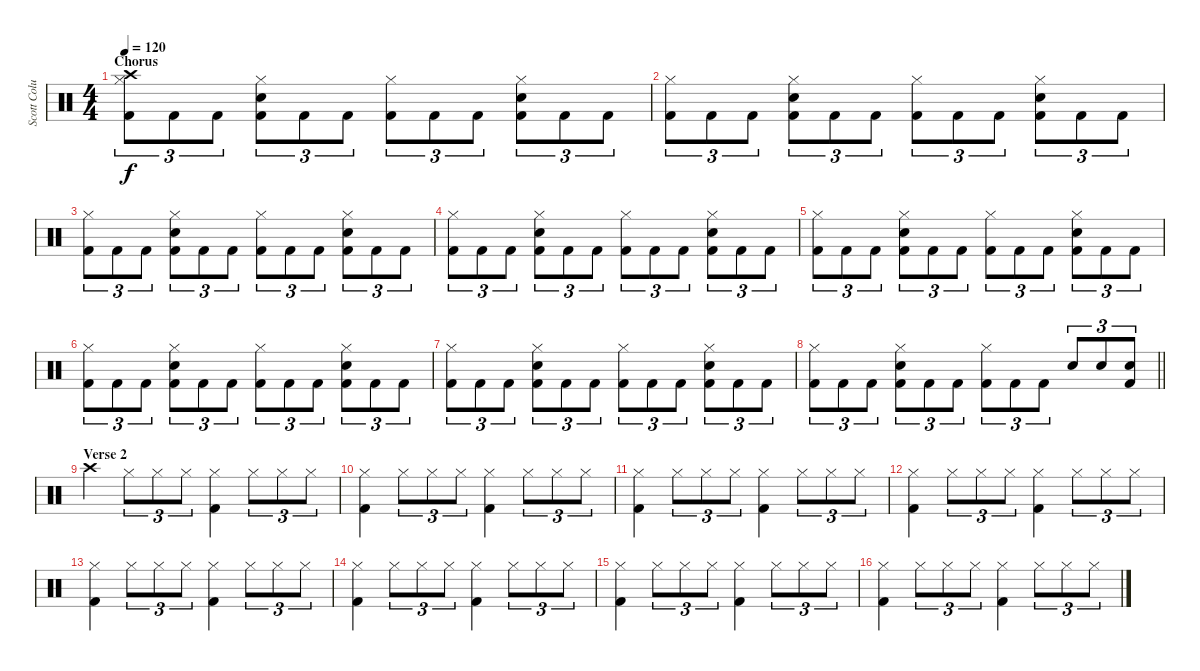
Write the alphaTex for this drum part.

\track ("Scott Columbus" "Scott Colu") {instrument percussion}
\staff {score}
\articulation defaults
\ts (4 4)
\section ("" "Chorus")
\tempo 120
\clef neutral
\ks c
("Crash high (hit)" "Hi-Hat (closed)" "Kick (hit) 2").8{tu (3 2) dy f} "Kick (hit) 2".8{tu (3 2)} "Kick (hit) 2".8{tu (3 2)} ("Hi-Hat (closed)" "Snare (hit) 2" "Kick (hit) 2").8{tu (3 2)} "Kick (hit) 2".8{tu (3 2)} "Kick (hit) 2".8{tu (3 2)} ("Hi-Hat (closed)" "Kick (hit) 2").8{tu (3 2)} "Kick (hit) 2".8{tu (3 2)} "Kick (hit) 2".8{tu (3 2)} ("Hi-Hat (closed)" "Snare (hit) 2" "Kick (hit) 2").8{tu (3 2)} "Kick (hit) 2".8{tu (3 2)} "Kick (hit) 2".8{tu (3 2)} |
("Hi-Hat (closed)" "Kick (hit) 2").8{tu (3 2)} "Kick (hit) 2".8{tu (3 2)} "Kick (hit) 2".8{tu (3 2)} ("Hi-Hat (closed)" "Snare (hit) 2" "Kick (hit) 2").8{tu (3 2)} "Kick (hit) 2".8{tu (3 2)} "Kick (hit) 2".8{tu (3 2)} ("Hi-Hat (closed)" "Kick (hit) 2").8{tu (3 2)} "Kick (hit) 2".8{tu (3 2)} "Kick (hit) 2".8{tu (3 2)} ("Hi-Hat (closed)" "Snare (hit) 2" "Kick (hit) 2").8{tu (3 2)} "Kick (hit) 2".8{tu (3 2)} "Kick (hit) 2".8{tu (3 2)} |
("Hi-Hat (closed)" "Kick (hit) 2").8{tu (3 2)} "Kick (hit) 2".8{tu (3 2)} "Kick (hit) 2".8{tu (3 2)} ("Hi-Hat (closed)" "Snare (hit) 2" "Kick (hit) 2").8{tu (3 2)} "Kick (hit) 2".8{tu (3 2)} "Kick (hit) 2".8{tu (3 2)} ("Hi-Hat (closed)" "Kick (hit) 2").8{tu (3 2)} "Kick (hit) 2".8{tu (3 2)} "Kick (hit) 2".8{tu (3 2)} ("Hi-Hat (closed)" "Snare (hit) 2" "Kick (hit) 2").8{tu (3 2)} "Kick (hit) 2".8{tu (3 2)} "Kick (hit) 2".8{tu (3 2)} |
("Hi-Hat (closed)" "Kick (hit) 2").8{tu (3 2)} "Kick (hit) 2".8{tu (3 2)} "Kick (hit) 2".8{tu (3 2)} ("Hi-Hat (closed)" "Snare (hit) 2" "Kick (hit) 2").8{tu (3 2)} "Kick (hit) 2".8{tu (3 2)} "Kick (hit) 2".8{tu (3 2)} ("Hi-Hat (closed)" "Kick (hit) 2").8{tu (3 2)} "Kick (hit) 2".8{tu (3 2)} "Kick (hit) 2".8{tu (3 2)} ("Hi-Hat (closed)" "Snare (hit) 2" "Kick (hit) 2").8{tu (3 2)} "Kick (hit) 2".8{tu (3 2)} "Kick (hit) 2".8{tu (3 2)} |
("Hi-Hat (closed)" "Kick (hit) 2").8{tu (3 2)} "Kick (hit) 2".8{tu (3 2)} "Kick (hit) 2".8{tu (3 2)} ("Hi-Hat (closed)" "Snare (hit) 2" "Kick (hit) 2").8{tu (3 2)} "Kick (hit) 2".8{tu (3 2)} "Kick (hit) 2".8{tu (3 2)} ("Hi-Hat (closed)" "Kick (hit) 2").8{tu (3 2)} "Kick (hit) 2".8{tu (3 2)} "Kick (hit) 2".8{tu (3 2)} ("Hi-Hat (closed)" "Snare (hit) 2" "Kick (hit) 2").8{tu (3 2)} "Kick (hit) 2".8{tu (3 2)} "Kick (hit) 2".8{tu (3 2)} |
("Hi-Hat (closed)" "Kick (hit) 2").8{tu (3 2)} "Kick (hit) 2".8{tu (3 2)} "Kick (hit) 2".8{tu (3 2)} ("Hi-Hat (closed)" "Snare (hit) 2" "Kick (hit) 2").8{tu (3 2)} "Kick (hit) 2".8{tu (3 2)} "Kick (hit) 2".8{tu (3 2)} ("Hi-Hat (closed)" "Kick (hit) 2").8{tu (3 2)} "Kick (hit) 2".8{tu (3 2)} "Kick (hit) 2".8{tu (3 2)} ("Hi-Hat (closed)" "Snare (hit) 2" "Kick (hit) 2").8{tu (3 2)} "Kick (hit) 2".8{tu (3 2)} "Kick (hit) 2".8{tu (3 2)} |
("Hi-Hat (closed)" "Kick (hit) 2").8{tu (3 2)} "Kick (hit) 2".8{tu (3 2)} "Kick (hit) 2".8{tu (3 2)} ("Hi-Hat (closed)" "Snare (hit) 2" "Kick (hit) 2").8{tu (3 2)} "Kick (hit) 2".8{tu (3 2)} "Kick (hit) 2".8{tu (3 2)} ("Hi-Hat (closed)" "Kick (hit) 2").8{tu (3 2)} "Kick (hit) 2".8{tu (3 2)} "Kick (hit) 2".8{tu (3 2)} ("Hi-Hat (closed)" "Snare (hit) 2" "Kick (hit) 2").8{tu (3 2)} "Kick (hit) 2".8{tu (3 2)} "Kick (hit) 2".8{tu (3 2)} |
\barLineRight lightlight
("Hi-Hat (closed)" "Kick (hit) 2").8{tu (3 2)} "Kick (hit) 2".8{tu (3 2)} "Kick (hit) 2".8{tu (3 2)} ("Hi-Hat (closed)" "Snare (hit) 2" "Kick (hit) 2").8{tu (3 2)} "Kick (hit) 2".8{tu (3 2)} "Kick (hit) 2".8{tu (3 2)} ("Hi-Hat (closed)" "Kick (hit) 2").8{tu (3 2)} "Kick (hit) 2".8{tu (3 2)} "Kick (hit) 2".8{tu (3 2)} "Snare (hit) 2".8{tu (3 2)} "Snare (hit) 2".8{tu (3 2)} ("Snare (hit) 2" "Kick (hit) 2").8{tu (3 2)} |
\section ("" "Verse 2")
"Crash high (hit)".4 "Hi-Hat (closed)".8{tu (3 2)} "Hi-Hat (closed)".8{tu (3 2)} "Hi-Hat (closed)".8{tu (3 2)} ("Hi-Hat (closed)" "Kick (hit) 2").4 "Hi-Hat (closed)".8{tu (3 2)} "Hi-Hat (closed)".8{tu (3 2)} "Hi-Hat (closed)".8{tu (3 2)} |
("Hi-Hat (closed)" "Kick (hit) 2").4 "Hi-Hat (closed)".8{tu (3 2)} "Hi-Hat (closed)".8{tu (3 2)} "Hi-Hat (closed)".8{tu (3 2)} ("Hi-Hat (closed)" "Kick (hit) 2").4 "Hi-Hat (closed)".8{tu (3 2)} "Hi-Hat (closed)".8{tu (3 2)} "Hi-Hat (closed)".8{tu (3 2)} |
("Hi-Hat (closed)" "Kick (hit) 2").4 "Hi-Hat (closed)".8{tu (3 2)} "Hi-Hat (closed)".8{tu (3 2)} "Hi-Hat (closed)".8{tu (3 2)} ("Hi-Hat (closed)" "Kick (hit) 2").4 "Hi-Hat (closed)".8{tu (3 2)} "Hi-Hat (closed)".8{tu (3 2)} "Hi-Hat (closed)".8{tu (3 2)} |
("Hi-Hat (closed)" "Kick (hit) 2").4 "Hi-Hat (closed)".8{tu (3 2)} "Hi-Hat (closed)".8{tu (3 2)} "Hi-Hat (closed)".8{tu (3 2)} ("Hi-Hat (closed)" "Kick (hit) 2").4 "Hi-Hat (closed)".8{tu (3 2)} "Hi-Hat (closed)".8{tu (3 2)} "Hi-Hat (closed)".8{tu (3 2)} |
("Hi-Hat (closed)" "Kick (hit) 2").4 "Hi-Hat (closed)".8{tu (3 2)} "Hi-Hat (closed)".8{tu (3 2)} "Hi-Hat (closed)".8{tu (3 2)} ("Hi-Hat (closed)" "Kick (hit) 2").4 "Hi-Hat (closed)".8{tu (3 2)} "Hi-Hat (closed)".8{tu (3 2)} "Hi-Hat (closed)".8{tu (3 2)} |
("Hi-Hat (closed)" "Kick (hit) 2").4 "Hi-Hat (closed)".8{tu (3 2)} "Hi-Hat (closed)".8{tu (3 2)} "Hi-Hat (closed)".8{tu (3 2)} ("Hi-Hat (closed)" "Kick (hit) 2").4 "Hi-Hat (closed)".8{tu (3 2)} "Hi-Hat (closed)".8{tu (3 2)} "Hi-Hat (closed)".8{tu (3 2)} |
("Hi-Hat (closed)" "Kick (hit) 2").4 "Hi-Hat (closed)".8{tu (3 2)} "Hi-Hat (closed)".8{tu (3 2)} "Hi-Hat (closed)".8{tu (3 2)} ("Hi-Hat (closed)" "Kick (hit) 2").4 "Hi-Hat (closed)".8{tu (3 2)} "Hi-Hat (closed)".8{tu (3 2)} "Hi-Hat (closed)".8{tu (3 2)} |
("Hi-Hat (closed)" "Kick (hit) 2").4 "Hi-Hat (closed)".8{tu (3 2)} "Hi-Hat (closed)".8{tu (3 2)} "Hi-Hat (closed)".8{tu (3 2)} ("Hi-Hat (closed)" "Kick (hit) 2").4 "Hi-Hat (closed)".8{tu (3 2)} "Hi-Hat (closed)".8{tu (3 2)} "Hi-Hat (closed)".8{tu (3 2)}
